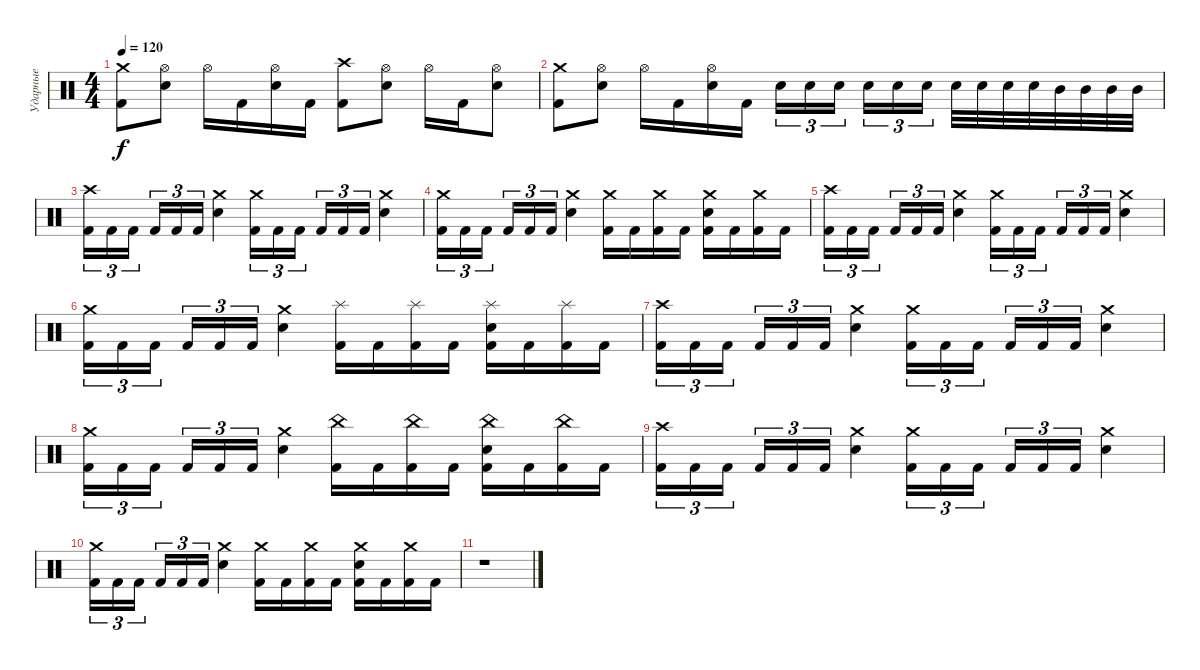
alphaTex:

\track ("Ударные" "Ударные") {instrument percussion}
\staff {score}
\articulation defaults
\ts (4 4)
\tempo 120
\clef neutral
\ks c
("Crash medium (hit)" "Kick (hit) 2").8{dy f} ("Hi-Hat (open)" "Electric Snare (hit)").8 "Hi-Hat (open)".16 "Kick (hit) 2".16 ("Hi-Hat (open)" "Electric Snare (hit)").16 "Kick (hit) 2".16 ("Crash high (hit)" "Kick (hit) 2").8 ("Hi-Hat (open)" "Electric Snare (hit)").8 "Hi-Hat (open)".16 "Kick (hit) 2".16 ("Hi-Hat (open)" "Electric Snare (hit)").8 |
("Crash medium (hit)" "Kick (hit) 2").8 ("Hi-Hat (open)" "Electric Snare (hit)").8 "Hi-Hat (open)".16 "Kick (hit) 2".16 ("Hi-Hat (open)" "Electric Snare (hit)").16 "Kick (hit) 2".16 "Electric Snare (hit)".16{tu (3 2)} "Electric Snare (hit)".16{tu (3 2)} "Electric Snare (hit)".16{tu (3 2) beam splitsecondary} "Electric Snare (hit)".16{tu (3 2)} "Electric Snare (hit)".16{tu (3 2)} "Electric Snare (hit)".16{tu (3 2)} "Electric Snare (hit)".32 "Electric Snare (hit)".32 "Electric Snare (hit)".32 "Electric Snare (hit)".32 "Mid Tom (hit)".32 "Mid Tom (hit)".32 "Mid Tom (hit)".32 "Mid Tom (hit)".32 |
("Crash high (hit)" "Kick (hit) 2").16{tu (3 2)} "Kick (hit) 2".16{tu (3 2)} "Kick (hit) 2".16{tu (3 2) beam splitsecondary} "Kick (hit) 2".16{tu (3 2)} "Kick (hit) 2".16{tu (3 2)} "Kick (hit) 2".16{tu (3 2)} ("Crash medium (hit)" "Electric Snare (hit)").4 ("Crash medium (hit)" "Kick (hit) 2").16{tu (3 2)} "Kick (hit) 2".16{tu (3 2)} "Kick (hit) 2".16{tu (3 2) beam splitsecondary} "Kick (hit) 2".16{tu (3 2)} "Kick (hit) 2".16{tu (3 2)} "Kick (hit) 2".16{tu (3 2)} ("Crash medium (hit)" "Electric Snare (hit)").4 |
("Crash medium (hit)" "Kick (hit) 2").16{tu (3 2)} "Kick (hit) 2".16{tu (3 2)} "Kick (hit) 2".16{tu (3 2) beam splitsecondary} "Kick (hit) 2".16{tu (3 2)} "Kick (hit) 2".16{tu (3 2)} "Kick (hit) 2".16{tu (3 2)} ("Crash medium (hit)" "Electric Snare (hit)").4 ("Crash medium (hit)" "Kick (hit) 2").16 "Kick (hit) 2".16 ("Crash medium (hit)" "Kick (hit) 2").16 "Kick (hit) 2".16 ("Crash medium (hit)" "Electric Snare (hit)" "Kick (hit) 2").16 "Kick (hit) 2".16 ("Crash medium (hit)" "Kick (hit) 2").16 "Kick (hit) 2".16 |
("Crash high (hit)" "Kick (hit) 2").16{tu (3 2)} "Kick (hit) 2".16{tu (3 2)} "Kick (hit) 2".16{tu (3 2) beam splitsecondary} "Kick (hit) 2".16{tu (3 2)} "Kick (hit) 2".16{tu (3 2)} "Kick (hit) 2".16{tu (3 2)} ("Crash medium (hit)" "Electric Snare (hit)").4 ("Crash medium (hit)" "Kick (hit) 2").16{tu (3 2)} "Kick (hit) 2".16{tu (3 2)} "Kick (hit) 2".16{tu (3 2) beam splitsecondary} "Kick (hit) 2".16{tu (3 2)} "Kick (hit) 2".16{tu (3 2)} "Kick (hit) 2".16{tu (3 2)} ("Crash medium (hit)" "Electric Snare (hit)").4 |
("Crash medium (hit)" "Kick (hit) 2").16{tu (3 2)} "Kick (hit) 2".16{tu (3 2)} "Kick (hit) 2".16{tu (3 2) beam splitsecondary} "Kick (hit) 2".16{tu (3 2)} "Kick (hit) 2".16{tu (3 2)} "Kick (hit) 2".16{tu (3 2)} ("Crash medium (hit)" "Electric Snare (hit)").4 ("Splash (hit)" "Kick (hit) 2").16 "Kick (hit) 2".16 ("Splash (hit)" "Kick (hit) 2").16 "Kick (hit) 2".16 ("Splash (hit)" "Electric Snare (hit)" "Kick (hit) 2").16 "Kick (hit) 2".16 ("Splash (hit)" "Kick (hit) 2").16 "Kick (hit) 2".16 |
("Crash high (hit)" "Kick (hit) 2").16{tu (3 2)} "Kick (hit) 2".16{tu (3 2)} "Kick (hit) 2".16{tu (3 2) beam splitsecondary} "Kick (hit) 2".16{tu (3 2)} "Kick (hit) 2".16{tu (3 2)} "Kick (hit) 2".16{tu (3 2)} ("Crash medium (hit)" "Electric Snare (hit)").4 ("Crash medium (hit)" "Kick (hit) 2").16{tu (3 2)} "Kick (hit) 2".16{tu (3 2)} "Kick (hit) 2".16{tu (3 2) beam splitsecondary} "Kick (hit) 2".16{tu (3 2)} "Kick (hit) 2".16{tu (3 2)} "Kick (hit) 2".16{tu (3 2)} ("Crash medium (hit)" "Electric Snare (hit)").4 |
("Crash medium (hit)" "Kick (hit) 2").16{tu (3 2)} "Kick (hit) 2".16{tu (3 2)} "Kick (hit) 2".16{tu (3 2) beam splitsecondary} "Kick (hit) 2".16{tu (3 2)} "Kick (hit) 2".16{tu (3 2)} "Kick (hit) 2".16{tu (3 2)} ("Crash medium (hit)" "Electric Snare (hit)").4 ("China (hit)" "Kick (hit) 2").16 "Kick (hit) 2".16 ("China (hit)" "Kick (hit) 2").16 "Kick (hit) 2".16 ("China (hit)" "Electric Snare (hit)" "Kick (hit) 2").16 "Kick (hit) 2".16 ("China (hit)" "Kick (hit) 2").16 "Kick (hit) 2".16 |
("Crash high (hit)" "Kick (hit) 2").16{tu (3 2)} "Kick (hit) 2".16{tu (3 2)} "Kick (hit) 2".16{tu (3 2) beam splitsecondary} "Kick (hit) 2".16{tu (3 2)} "Kick (hit) 2".16{tu (3 2)} "Kick (hit) 2".16{tu (3 2)} ("Crash medium (hit)" "Electric Snare (hit)").4 ("Crash medium (hit)" "Kick (hit) 2").16{tu (3 2)} "Kick (hit) 2".16{tu (3 2)} "Kick (hit) 2".16{tu (3 2) beam splitsecondary} "Kick (hit) 2".16{tu (3 2)} "Kick (hit) 2".16{tu (3 2)} "Kick (hit) 2".16{tu (3 2)} ("Crash medium (hit)" "Electric Snare (hit)").4 |
("Crash medium (hit)" "Kick (hit) 2").16{tu (3 2)} "Kick (hit) 2".16{tu (3 2)} "Kick (hit) 2".16{tu (3 2) beam splitsecondary} "Kick (hit) 2".16{tu (3 2)} "Kick (hit) 2".16{tu (3 2)} "Kick (hit) 2".16{tu (3 2)} ("Crash medium (hit)" "Electric Snare (hit)").4 ("Crash medium (hit)" "Kick (hit) 2").16 "Kick (hit) 2".16 ("Crash medium (hit)" "Kick (hit) 2").16 "Kick (hit) 2".16 ("Crash medium (hit)" "Electric Snare (hit)" "Kick (hit) 2").16 "Kick (hit) 2".16 ("Crash medium (hit)" "Kick (hit) 2").16 "Kick (hit) 2".16 |
r.1
